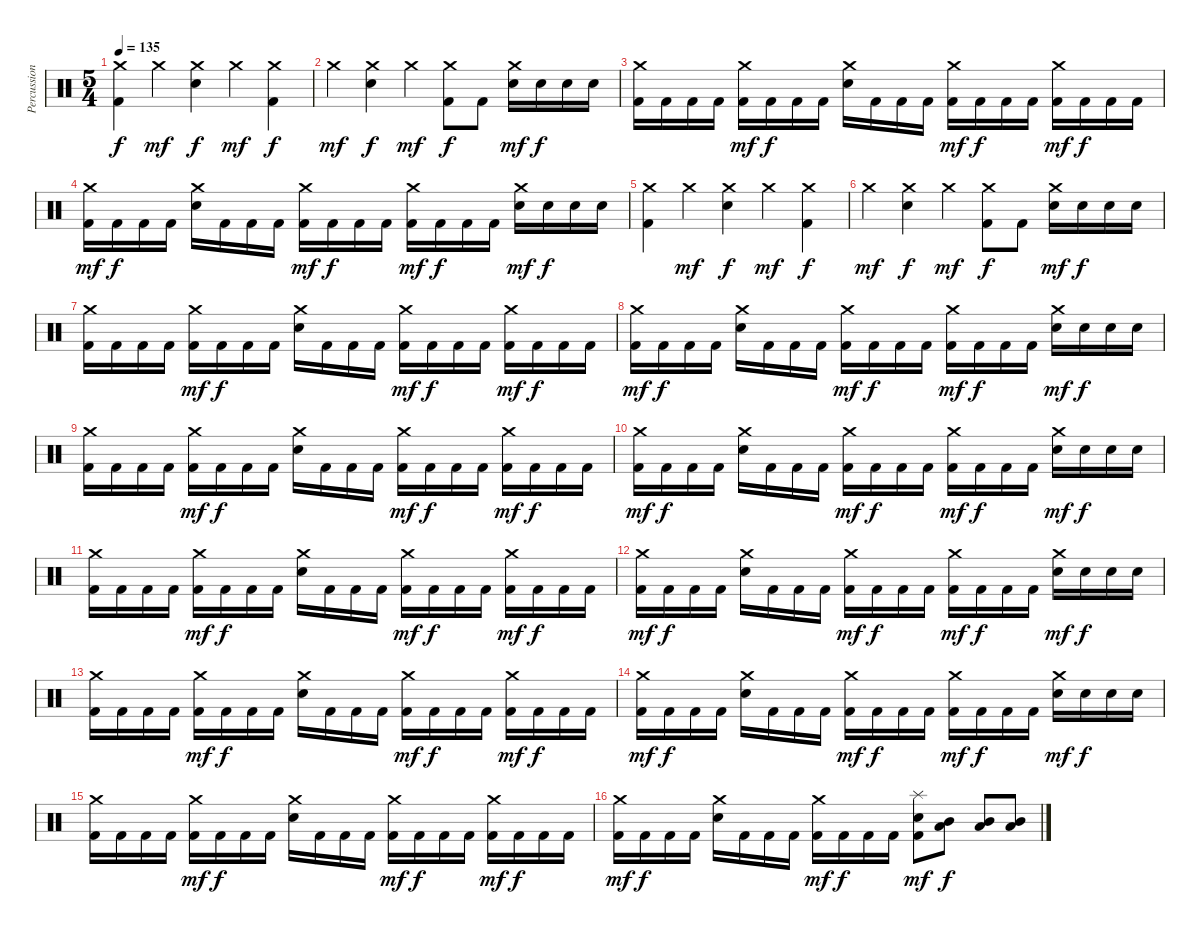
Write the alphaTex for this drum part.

\track ("Percussion" "Percussion") {instrument percussion}
\staff {score}
\articulation defaults
\ts (5 4)
\tempo 135
\clef neutral
\ks c
("Crash medium (hit)" "Kick (hit) 2").4{dy f} "Crash medium (hit)".4{dy mf} ("Crash medium (hit)" "Snare (hit) 2").4{dy f} "Crash medium (hit)".4{dy mf} ("Crash medium (hit)" "Kick (hit) 2").4{dy f} |
"Crash medium (hit)".4{dy mf} ("Crash medium (hit)" "Snare (hit) 2").4{dy f} "Crash medium (hit)".4{dy mf} ("Crash medium (hit)" "Kick (hit) 2").8{dy f} "Kick (hit) 2".8 ("Crash medium (hit)" "Snare (hit) 2").16{dy mf} "Snare (hit) 2".16{dy f} "Snare (hit) 2".16 "Snare (hit) 2".16 |
("Crash medium (hit)" "Kick (hit) 2").16 "Kick (hit) 2".16 "Kick (hit) 2".16 "Kick (hit) 2".16 ("Crash medium (hit)" "Kick (hit) 2").16{dy mf} "Kick (hit) 2".16{dy f} "Kick (hit) 2".16 "Kick (hit) 2".16 ("Crash medium (hit)" "Snare (hit) 2").16 "Kick (hit) 2".16 "Kick (hit) 2".16 "Kick (hit) 2".16 ("Crash medium (hit)" "Kick (hit) 2").16{dy mf} "Kick (hit) 2".16{dy f} "Kick (hit) 2".16 "Kick (hit) 2".16 ("Crash medium (hit)" "Kick (hit) 2").16{dy mf} "Kick (hit) 2".16{dy f} "Kick (hit) 2".16 "Kick (hit) 2".16 |
("Crash medium (hit)" "Kick (hit) 2").16{dy mf} "Kick (hit) 2".16{dy f} "Kick (hit) 2".16 "Kick (hit) 2".16 ("Crash medium (hit)" "Snare (hit) 2").16 "Kick (hit) 2".16 "Kick (hit) 2".16 "Kick (hit) 2".16 ("Crash medium (hit)" "Kick (hit) 2").16{dy mf} "Kick (hit) 2".16{dy f} "Kick (hit) 2".16 "Kick (hit) 2".16 ("Crash medium (hit)" "Kick (hit) 2").16{dy mf} "Kick (hit) 2".16{dy f} "Kick (hit) 2".16 "Kick (hit) 2".16 ("Crash medium (hit)" "Snare (hit) 2").16{dy mf} "Snare (hit) 2".16{dy f} "Snare (hit) 2".16 "Snare (hit) 2".16 |
("Crash medium (hit)" "Kick (hit) 2").4 "Crash medium (hit)".4{dy mf} ("Crash medium (hit)" "Snare (hit) 2").4{dy f} "Crash medium (hit)".4{dy mf} ("Crash medium (hit)" "Kick (hit) 2").4{dy f} |
"Crash medium (hit)".4{dy mf} ("Crash medium (hit)" "Snare (hit) 2").4{dy f} "Crash medium (hit)".4{dy mf} ("Crash medium (hit)" "Kick (hit) 2").8{dy f} "Kick (hit) 2".8 ("Crash medium (hit)" "Snare (hit) 2").16{dy mf} "Snare (hit) 2".16{dy f} "Snare (hit) 2".16 "Snare (hit) 2".16 |
("Crash medium (hit)" "Kick (hit) 2").16 "Kick (hit) 2".16 "Kick (hit) 2".16 "Kick (hit) 2".16 ("Crash medium (hit)" "Kick (hit) 2").16{dy mf} "Kick (hit) 2".16{dy f} "Kick (hit) 2".16 "Kick (hit) 2".16 ("Crash medium (hit)" "Snare (hit) 2").16 "Kick (hit) 2".16 "Kick (hit) 2".16 "Kick (hit) 2".16 ("Crash medium (hit)" "Kick (hit) 2").16{dy mf} "Kick (hit) 2".16{dy f} "Kick (hit) 2".16 "Kick (hit) 2".16 ("Crash medium (hit)" "Kick (hit) 2").16{dy mf} "Kick (hit) 2".16{dy f} "Kick (hit) 2".16 "Kick (hit) 2".16 |
("Crash medium (hit)" "Kick (hit) 2").16{dy mf} "Kick (hit) 2".16{dy f} "Kick (hit) 2".16 "Kick (hit) 2".16 ("Crash medium (hit)" "Snare (hit) 2").16 "Kick (hit) 2".16 "Kick (hit) 2".16 "Kick (hit) 2".16 ("Crash medium (hit)" "Kick (hit) 2").16{dy mf} "Kick (hit) 2".16{dy f} "Kick (hit) 2".16 "Kick (hit) 2".16 ("Crash medium (hit)" "Kick (hit) 2").16{dy mf} "Kick (hit) 2".16{dy f} "Kick (hit) 2".16 "Kick (hit) 2".16 ("Crash medium (hit)" "Snare (hit) 2").16{dy mf} "Snare (hit) 2".16{dy f} "Snare (hit) 2".16 "Snare (hit) 2".16 |
("Crash medium (hit)" "Kick (hit) 2").16 "Kick (hit) 2".16 "Kick (hit) 2".16 "Kick (hit) 2".16 ("Crash medium (hit)" "Kick (hit) 2").16{dy mf} "Kick (hit) 2".16{dy f} "Kick (hit) 2".16 "Kick (hit) 2".16 ("Crash medium (hit)" "Snare (hit) 2").16 "Kick (hit) 2".16 "Kick (hit) 2".16 "Kick (hit) 2".16 ("Crash medium (hit)" "Kick (hit) 2").16{dy mf} "Kick (hit) 2".16{dy f} "Kick (hit) 2".16 "Kick (hit) 2".16 ("Crash medium (hit)" "Kick (hit) 2").16{dy mf} "Kick (hit) 2".16{dy f} "Kick (hit) 2".16 "Kick (hit) 2".16 |
("Crash medium (hit)" "Kick (hit) 2").16{dy mf} "Kick (hit) 2".16{dy f} "Kick (hit) 2".16 "Kick (hit) 2".16 ("Crash medium (hit)" "Snare (hit) 2").16 "Kick (hit) 2".16 "Kick (hit) 2".16 "Kick (hit) 2".16 ("Crash medium (hit)" "Kick (hit) 2").16{dy mf} "Kick (hit) 2".16{dy f} "Kick (hit) 2".16 "Kick (hit) 2".16 ("Crash medium (hit)" "Kick (hit) 2").16{dy mf} "Kick (hit) 2".16{dy f} "Kick (hit) 2".16 "Kick (hit) 2".16 ("Crash medium (hit)" "Snare (hit) 2").16{dy mf} "Snare (hit) 2".16{dy f} "Snare (hit) 2".16 "Snare (hit) 2".16 |
("Crash medium (hit)" "Kick (hit) 2").16 "Kick (hit) 2".16 "Kick (hit) 2".16 "Kick (hit) 2".16 ("Crash medium (hit)" "Kick (hit) 2").16{dy mf} "Kick (hit) 2".16{dy f} "Kick (hit) 2".16 "Kick (hit) 2".16 ("Crash medium (hit)" "Snare (hit) 2").16 "Kick (hit) 2".16 "Kick (hit) 2".16 "Kick (hit) 2".16 ("Crash medium (hit)" "Kick (hit) 2").16{dy mf} "Kick (hit) 2".16{dy f} "Kick (hit) 2".16 "Kick (hit) 2".16 ("Crash medium (hit)" "Kick (hit) 2").16{dy mf} "Kick (hit) 2".16{dy f} "Kick (hit) 2".16 "Kick (hit) 2".16 |
("Crash medium (hit)" "Kick (hit) 2").16{dy mf} "Kick (hit) 2".16{dy f} "Kick (hit) 2".16 "Kick (hit) 2".16 ("Crash medium (hit)" "Snare (hit) 2").16 "Kick (hit) 2".16 "Kick (hit) 2".16 "Kick (hit) 2".16 ("Crash medium (hit)" "Kick (hit) 2").16{dy mf} "Kick (hit) 2".16{dy f} "Kick (hit) 2".16 "Kick (hit) 2".16 ("Crash medium (hit)" "Kick (hit) 2").16{dy mf} "Kick (hit) 2".16{dy f} "Kick (hit) 2".16 "Kick (hit) 2".16 ("Crash medium (hit)" "Snare (hit) 2").16{dy mf} "Snare (hit) 2".16{dy f} "Snare (hit) 2".16 "Snare (hit) 2".16 |
("Crash medium (hit)" "Kick (hit) 2").16 "Kick (hit) 2".16 "Kick (hit) 2".16 "Kick (hit) 2".16 ("Crash medium (hit)" "Kick (hit) 2").16{dy mf} "Kick (hit) 2".16{dy f} "Kick (hit) 2".16 "Kick (hit) 2".16 ("Crash medium (hit)" "Snare (hit) 2").16 "Kick (hit) 2".16 "Kick (hit) 2".16 "Kick (hit) 2".16 ("Crash medium (hit)" "Kick (hit) 2").16{dy mf} "Kick (hit) 2".16{dy f} "Kick (hit) 2".16 "Kick (hit) 2".16 ("Crash medium (hit)" "Kick (hit) 2").16{dy mf} "Kick (hit) 2".16{dy f} "Kick (hit) 2".16 "Kick (hit) 2".16 |
("Crash medium (hit)" "Kick (hit) 2").16{dy mf} "Kick (hit) 2".16{dy f} "Kick (hit) 2".16 "Kick (hit) 2".16 ("Crash medium (hit)" "Snare (hit) 2").16 "Kick (hit) 2".16 "Kick (hit) 2".16 "Kick (hit) 2".16 ("Crash medium (hit)" "Kick (hit) 2").16{dy mf} "Kick (hit) 2".16{dy f} "Kick (hit) 2".16 "Kick (hit) 2".16 ("Crash medium (hit)" "Kick (hit) 2").16{dy mf} "Kick (hit) 2".16{dy f} "Kick (hit) 2".16 "Kick (hit) 2".16 ("Crash medium (hit)" "Snare (hit) 2").16{dy mf} "Snare (hit) 2".16{dy f} "Snare (hit) 2".16 "Snare (hit) 2".16 |
("Crash medium (hit)" "Kick (hit) 2").16 "Kick (hit) 2".16 "Kick (hit) 2".16 "Kick (hit) 2".16 ("Crash medium (hit)" "Kick (hit) 2").16{dy mf} "Kick (hit) 2".16{dy f} "Kick (hit) 2".16 "Kick (hit) 2".16 ("Crash medium (hit)" "Snare (hit) 2").16 "Kick (hit) 2".16 "Kick (hit) 2".16 "Kick (hit) 2".16 ("Crash medium (hit)" "Kick (hit) 2").16{dy mf} "Kick (hit) 2".16{dy f} "Kick (hit) 2".16 "Kick (hit) 2".16 ("Crash medium (hit)" "Kick (hit) 2").16{dy mf} "Kick (hit) 2".16{dy f} "Kick (hit) 2".16 "Kick (hit) 2".16 |
("Crash medium (hit)" "Kick (hit) 2").16{dy mf} "Kick (hit) 2".16{dy f} "Kick (hit) 2".16 "Kick (hit) 2".16 ("Crash medium (hit)" "Snare (hit) 2").16 "Kick (hit) 2".16 "Kick (hit) 2".16 "Kick (hit) 2".16 ("Crash medium (hit)" "Kick (hit) 2").16{dy mf} "Kick (hit) 2".16{dy f} "Kick (hit) 2".16 "Kick (hit) 2".16 ("Splash (hit)" "Snare (hit) 2" "Kick (hit) 2").8{dy mf} ("Mid Tom (hit)" "Low Tom (hit)").8{dy f} ("Mid Tom (hit)" "Low Tom (hit)").8 ("Mid Tom (hit)" "Low Tom (hit)").8
